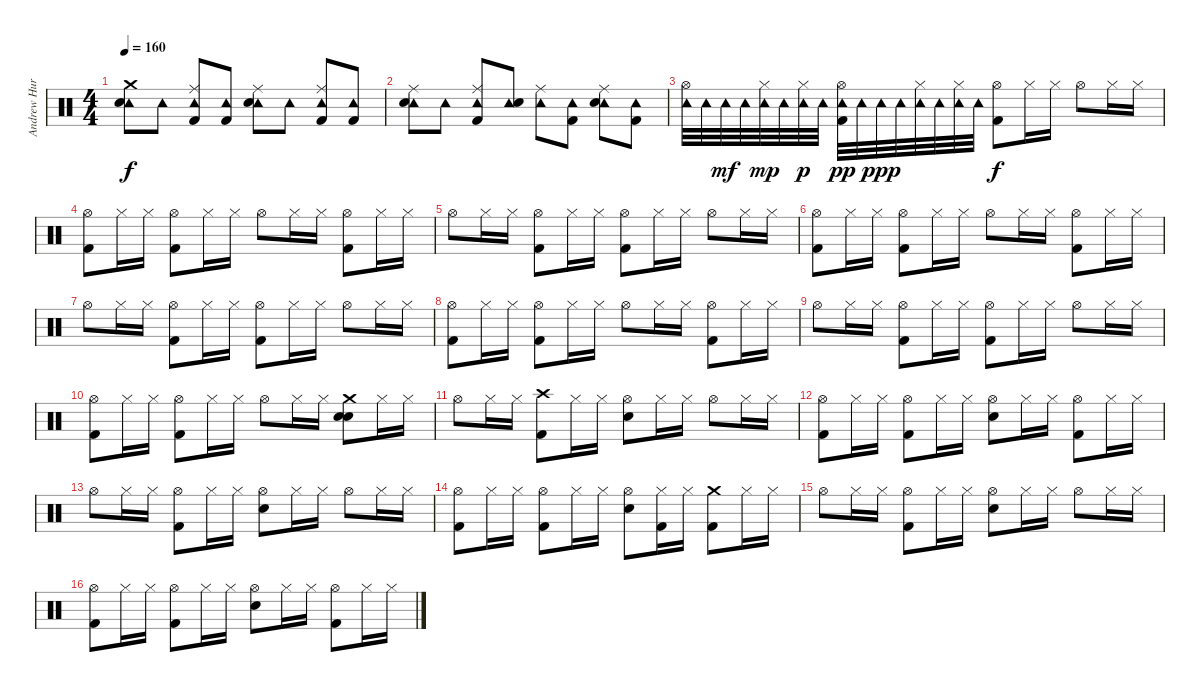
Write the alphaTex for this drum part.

\track ("Andrew Hurley (Drums)" "Andrew Hur") {instrument percussion}
\staff {score}
\articulation defaults
\ts (4 4)
\tempo 160
\clef neutral
\ks c
("Crash medium (hit)" "Tambourine (hit)" "Snare (hit) 2").8{dy f} "Tambourine (hit)".8 ("Ride (middle)" "Tambourine (hit)" "Kick (hit) 2").8 ("Tambourine (hit)" "Kick (hit) 2").8 ("Ride (middle)" "Tambourine (hit)" "Snare (hit) 2").8 "Tambourine (hit)".8 ("Ride (middle)" "Tambourine (hit)" "Kick (hit) 2").8 ("Tambourine (hit)" "Kick (hit) 2").8 |
("Ride (middle)" "Tambourine (hit)" "Snare (hit) 2").8 "Tambourine (hit)".8 ("Ride (middle)" "Tambourine (hit)" "Kick (hit) 2").8 ("Tambourine (hit)" "Snare (hit) 2").8 ("Ride (middle)" "Tambourine (hit)").8 ("Tambourine (hit)" "Kick (hit) 2").8 ("Ride (middle)" "Tambourine (hit)" "Snare (hit) 2").8 ("Tambourine (hit)" "Kick (hit) 2").8 |
("Hi-Hat (open)" "Tambourine (hit)").32 "Tambourine (hit)".32 "Tambourine (hit)".32{dy mf} "Tambourine (hit)".32 ("Hi-Hat (closed)" "Tambourine (hit)").32{dy mp} "Tambourine (hit)".32 ("Hi-Hat (closed)" "Tambourine (hit)").32{dy p} "Tambourine (hit)".32 ("Hi-Hat (open)" "Tambourine (hit)" "Kick (hit) 2").32{dy pp} "Tambourine (hit)".32 "Tambourine (hit)".32{dy ppp} "Tambourine (hit)".32 ("Hi-Hat (closed)" "Tambourine (hit)").32 "Tambourine (hit)".32 ("Hi-Hat (closed)" "Tambourine (hit)").32 "Tambourine (hit)".32 ("Hi-Hat (open)" "Kick (hit) 2").8{dy f} "Hi-Hat (closed)".16 "Hi-Hat (closed)".16 "Hi-Hat (open)".8 "Hi-Hat (closed)".16 "Hi-Hat (closed)".16 |
("Hi-Hat (open)" "Kick (hit) 2").8 "Hi-Hat (closed)".16 "Hi-Hat (closed)".16 ("Hi-Hat (open)" "Kick (hit) 2").8 "Hi-Hat (closed)".16 "Hi-Hat (closed)".16 "Hi-Hat (open)".8 "Hi-Hat (closed)".16 "Hi-Hat (closed)".16 ("Hi-Hat (open)" "Kick (hit) 2").8 "Hi-Hat (closed)".16 "Hi-Hat (closed)".16 |
"Hi-Hat (open)".8 "Hi-Hat (closed)".16 "Hi-Hat (closed)".16 ("Hi-Hat (open)" "Kick (hit) 2").8 "Hi-Hat (closed)".16 "Hi-Hat (closed)".16 ("Hi-Hat (open)" "Kick (hit) 2").8 "Hi-Hat (closed)".16 "Hi-Hat (closed)".16 "Hi-Hat (open)".8 "Hi-Hat (closed)".16 "Hi-Hat (closed)".16 |
("Hi-Hat (open)" "Kick (hit) 2").8 "Hi-Hat (closed)".16 "Hi-Hat (closed)".16 ("Hi-Hat (open)" "Kick (hit) 2").8 "Hi-Hat (closed)".16 "Hi-Hat (closed)".16 "Hi-Hat (open)".8 "Hi-Hat (closed)".16 "Hi-Hat (closed)".16 ("Hi-Hat (open)" "Kick (hit) 2").8 "Hi-Hat (closed)".16 "Hi-Hat (closed)".16 |
"Hi-Hat (open)".8 "Hi-Hat (closed)".16 "Hi-Hat (closed)".16 ("Hi-Hat (open)" "Kick (hit) 2").8 "Hi-Hat (closed)".16 "Hi-Hat (closed)".16 ("Hi-Hat (open)" "Kick (hit) 2").8 "Hi-Hat (closed)".16 "Hi-Hat (closed)".16 "Hi-Hat (open)".8 "Hi-Hat (closed)".16 "Hi-Hat (closed)".16 |
("Hi-Hat (open)" "Kick (hit) 2").8 "Hi-Hat (closed)".16 "Hi-Hat (closed)".16 ("Hi-Hat (open)" "Kick (hit) 2").8 "Hi-Hat (closed)".16 "Hi-Hat (closed)".16 "Hi-Hat (open)".8 "Hi-Hat (closed)".16 "Hi-Hat (closed)".16 ("Hi-Hat (open)" "Kick (hit) 2").8 "Hi-Hat (closed)".16 "Hi-Hat (closed)".16 |
"Hi-Hat (open)".8 "Hi-Hat (closed)".16 "Hi-Hat (closed)".16 ("Hi-Hat (open)" "Kick (hit) 2").8 "Hi-Hat (closed)".16 "Hi-Hat (closed)".16 ("Hi-Hat (open)" "Kick (hit) 2").8 "Hi-Hat (closed)".16 "Hi-Hat (closed)".16 "Hi-Hat (open)".8 "Hi-Hat (closed)".16 "Hi-Hat (closed)".16 |
("Hi-Hat (open)" "Kick (hit) 2").8 "Hi-Hat (closed)".16 "Hi-Hat (closed)".16 ("Hi-Hat (open)" "Kick (hit) 2").8 "Hi-Hat (closed)".16 "Hi-Hat (closed)".16 "Hi-Hat (open)".8 "Hi-Hat (closed)".16 "Hi-Hat (closed)".16 ("Crash medium (hit)" "Snare (hit) 2" "Snare (hit) 2").8 "Hi-Hat (closed)".16 "Hi-Hat (closed)".16 |
"Hi-Hat (open)".8 "Hi-Hat (closed)".16 "Hi-Hat (closed)".16 ("Crash high (hit)" "Kick (hit) 2").8 "Hi-Hat (closed)".16 "Hi-Hat (closed)".16 ("Hi-Hat (open)" "Snare (hit) 2").8 "Hi-Hat (closed)".16 "Hi-Hat (closed)".16 "Hi-Hat (open)".8 "Hi-Hat (closed)".16 "Hi-Hat (closed)".16 |
("Hi-Hat (open)" "Kick (hit) 2").8 "Hi-Hat (closed)".16 "Hi-Hat (closed)".16 ("Hi-Hat (open)" "Kick (hit) 2").8 "Hi-Hat (closed)".16 "Hi-Hat (closed)".16 ("Hi-Hat (open)" "Snare (hit) 2").8 "Hi-Hat (closed)".16 "Hi-Hat (closed)".16 ("Hi-Hat (open)" "Kick (hit) 2").8 "Hi-Hat (closed)".16 "Hi-Hat (closed)".16 |
"Hi-Hat (open)".8 "Hi-Hat (closed)".16 "Hi-Hat (closed)".16 ("Hi-Hat (open)" "Kick (hit) 2").8 "Hi-Hat (closed)".16 "Hi-Hat (closed)".16 ("Hi-Hat (open)" "Snare (hit) 2").8 "Hi-Hat (closed)".16 "Hi-Hat (closed)".16 "Hi-Hat (open)".8 "Hi-Hat (closed)".16 "Hi-Hat (closed)".16 |
("Hi-Hat (open)" "Kick (hit) 2").8 "Hi-Hat (closed)".16 "Hi-Hat (closed)".16 ("Hi-Hat (open)" "Kick (hit) 2").8 "Hi-Hat (closed)".16 "Hi-Hat (closed)".16 ("Hi-Hat (open)" "Snare (hit) 2").8 ("Hi-Hat (closed)" "Kick (hit) 2").16 "Hi-Hat (closed)".16 ("Crash medium (hit)" "Kick (hit) 2").8 "Hi-Hat (closed)".16 "Hi-Hat (closed)".16 |
"Hi-Hat (open)".8 "Hi-Hat (closed)".16 "Hi-Hat (closed)".16 ("Hi-Hat (open)" "Kick (hit) 2").8 "Hi-Hat (closed)".16 "Hi-Hat (closed)".16 ("Hi-Hat (open)" "Snare (hit) 2").8 "Hi-Hat (closed)".16 "Hi-Hat (closed)".16 "Hi-Hat (open)".8 "Hi-Hat (closed)".16 "Hi-Hat (closed)".16 |
("Hi-Hat (open)" "Kick (hit) 2").8 "Hi-Hat (closed)".16 "Hi-Hat (closed)".16 ("Hi-Hat (open)" "Kick (hit) 2").8 "Hi-Hat (closed)".16 "Hi-Hat (closed)".16 ("Hi-Hat (open)" "Snare (hit) 2").8 "Hi-Hat (closed)".16 "Hi-Hat (closed)".16 ("Hi-Hat (open)" "Kick (hit) 2").8 "Hi-Hat (closed)".16 "Hi-Hat (closed)".16
